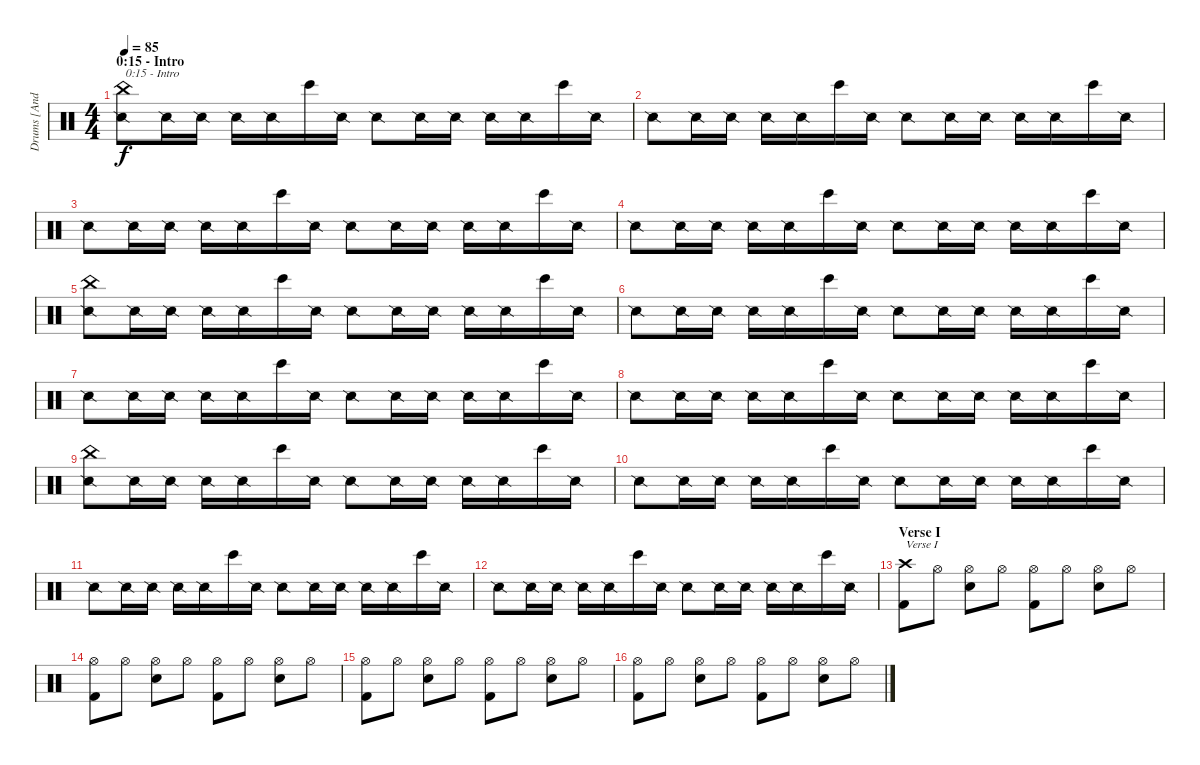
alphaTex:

\track ("Drums [Anders Kobro]" "Drums [And") {instrument percussion}
\staff {score}
\articulation defaults
\ts (4 4)
\section ("" "0:15 - Intro")
\tempo 85
\clef neutral
\ks c
("China (hit)" "Snare (side stick) 2").8{txt "0:15 - Intro" dy f} "Snare (side stick) 2".16 "Snare (side stick) 2".16 "Snare (side stick) 2".16 "Snare (side stick) 2".16 "Bongo High (hit)".16 "Snare (side stick) 2".16 "Snare (side stick) 2".8 "Snare (side stick) 2".16 "Snare (side stick) 2".16 "Snare (side stick) 2".16 "Snare (side stick) 2".16 "Bongo High (hit)".16 "Snare (side stick) 2".16 |
"Snare (side stick) 2".8 "Snare (side stick) 2".16 "Snare (side stick) 2".16 "Snare (side stick) 2".16 "Snare (side stick) 2".16 "Bongo High (hit)".16 "Snare (side stick) 2".16 "Snare (side stick) 2".8 "Snare (side stick) 2".16 "Snare (side stick) 2".16 "Snare (side stick) 2".16 "Snare (side stick) 2".16 "Bongo High (hit)".16 "Snare (side stick) 2".16 |
"Snare (side stick) 2".8 "Snare (side stick) 2".16 "Snare (side stick) 2".16 "Snare (side stick) 2".16 "Snare (side stick) 2".16 "Bongo High (hit)".16 "Snare (side stick) 2".16 "Snare (side stick) 2".8 "Snare (side stick) 2".16 "Snare (side stick) 2".16 "Snare (side stick) 2".16 "Snare (side stick) 2".16 "Bongo High (hit)".16 "Snare (side stick) 2".16 |
"Snare (side stick) 2".8 "Snare (side stick) 2".16 "Snare (side stick) 2".16 "Snare (side stick) 2".16 "Snare (side stick) 2".16 "Bongo High (hit)".16 "Snare (side stick) 2".16 "Snare (side stick) 2".8 "Snare (side stick) 2".16 "Snare (side stick) 2".16 "Snare (side stick) 2".16 "Snare (side stick) 2".16 "Bongo High (hit)".16 "Snare (side stick) 2".16 |
("China (hit)" "Snare (side stick) 2").8 "Snare (side stick) 2".16 "Snare (side stick) 2".16 "Snare (side stick) 2".16 "Snare (side stick) 2".16 "Bongo High (hit)".16 "Snare (side stick) 2".16 "Snare (side stick) 2".8 "Snare (side stick) 2".16 "Snare (side stick) 2".16 "Snare (side stick) 2".16 "Snare (side stick) 2".16 "Bongo High (hit)".16 "Snare (side stick) 2".16 |
"Snare (side stick) 2".8 "Snare (side stick) 2".16 "Snare (side stick) 2".16 "Snare (side stick) 2".16 "Snare (side stick) 2".16 "Bongo High (hit)".16 "Snare (side stick) 2".16 "Snare (side stick) 2".8 "Snare (side stick) 2".16 "Snare (side stick) 2".16 "Snare (side stick) 2".16 "Snare (side stick) 2".16 "Bongo High (hit)".16 "Snare (side stick) 2".16 |
"Snare (side stick) 2".8 "Snare (side stick) 2".16 "Snare (side stick) 2".16 "Snare (side stick) 2".16 "Snare (side stick) 2".16 "Bongo High (hit)".16 "Snare (side stick) 2".16 "Snare (side stick) 2".8 "Snare (side stick) 2".16 "Snare (side stick) 2".16 "Snare (side stick) 2".16 "Snare (side stick) 2".16 "Bongo High (hit)".16 "Snare (side stick) 2".16 |
"Snare (side stick) 2".8 "Snare (side stick) 2".16 "Snare (side stick) 2".16 "Snare (side stick) 2".16 "Snare (side stick) 2".16 "Bongo High (hit)".16 "Snare (side stick) 2".16 "Snare (side stick) 2".8 "Snare (side stick) 2".16 "Snare (side stick) 2".16 "Snare (side stick) 2".16 "Snare (side stick) 2".16 "Bongo High (hit)".16 "Snare (side stick) 2".16 |
("China (hit)" "Snare (side stick) 2").8 "Snare (side stick) 2".16 "Snare (side stick) 2".16 "Snare (side stick) 2".16 "Snare (side stick) 2".16 "Bongo High (hit)".16 "Snare (side stick) 2".16 "Snare (side stick) 2".8 "Snare (side stick) 2".16 "Snare (side stick) 2".16 "Snare (side stick) 2".16 "Snare (side stick) 2".16 "Bongo High (hit)".16 "Snare (side stick) 2".16 |
"Snare (side stick) 2".8 "Snare (side stick) 2".16 "Snare (side stick) 2".16 "Snare (side stick) 2".16 "Snare (side stick) 2".16 "Bongo High (hit)".16 "Snare (side stick) 2".16 "Snare (side stick) 2".8 "Snare (side stick) 2".16 "Snare (side stick) 2".16 "Snare (side stick) 2".16 "Snare (side stick) 2".16 "Bongo High (hit)".16 "Snare (side stick) 2".16 |
"Snare (side stick) 2".8 "Snare (side stick) 2".16 "Snare (side stick) 2".16 "Snare (side stick) 2".16 "Snare (side stick) 2".16 "Bongo High (hit)".16 "Snare (side stick) 2".16 "Snare (side stick) 2".8 "Snare (side stick) 2".16 "Snare (side stick) 2".16 "Snare (side stick) 2".16 "Snare (side stick) 2".16 "Bongo High (hit)".16 "Snare (side stick) 2".16 |
"Snare (side stick) 2".8 "Snare (side stick) 2".16 "Snare (side stick) 2".16 "Snare (side stick) 2".16 "Snare (side stick) 2".16 "Bongo High (hit)".16 "Snare (side stick) 2".16 "Snare (side stick) 2".8 "Snare (side stick) 2".16 "Snare (side stick) 2".16 "Snare (side stick) 2".16 "Snare (side stick) 2".16 "Bongo High (hit)".16 "Snare (side stick) 2".16 |
\section ("" "Verse I")
("Crash high (hit)" "Kick (hit) 2").8{txt "Verse I"} "Hi-Hat (open)".8 ("Hi-Hat (open)" "Electric Snare (hit)").8 "Hi-Hat (open)".8 ("Hi-Hat (open)" "Kick (hit) 2").8 "Hi-Hat (open)".8 ("Hi-Hat (open)" "Electric Snare (hit)").8 "Hi-Hat (open)".8 |
("Hi-Hat (open)" "Kick (hit) 2").8 "Hi-Hat (open)".8 ("Hi-Hat (open)" "Electric Snare (hit)").8 "Hi-Hat (open)".8 ("Hi-Hat (open)" "Kick (hit) 2").8 "Hi-Hat (open)".8 ("Hi-Hat (open)" "Electric Snare (hit)").8 "Hi-Hat (open)".8 |
("Hi-Hat (open)" "Kick (hit) 2").8 "Hi-Hat (open)".8 ("Hi-Hat (open)" "Electric Snare (hit)").8 "Hi-Hat (open)".8 ("Hi-Hat (open)" "Kick (hit) 2").8 "Hi-Hat (open)".8 ("Hi-Hat (open)" "Electric Snare (hit)").8 "Hi-Hat (open)".8 |
("Hi-Hat (open)" "Kick (hit) 2").8 "Hi-Hat (open)".8 ("Hi-Hat (open)" "Electric Snare (hit)").8 "Hi-Hat (open)".8 ("Hi-Hat (open)" "Kick (hit) 2").8 "Hi-Hat (open)".8 ("Hi-Hat (open)" "Electric Snare (hit)").8 "Hi-Hat (open)".8
